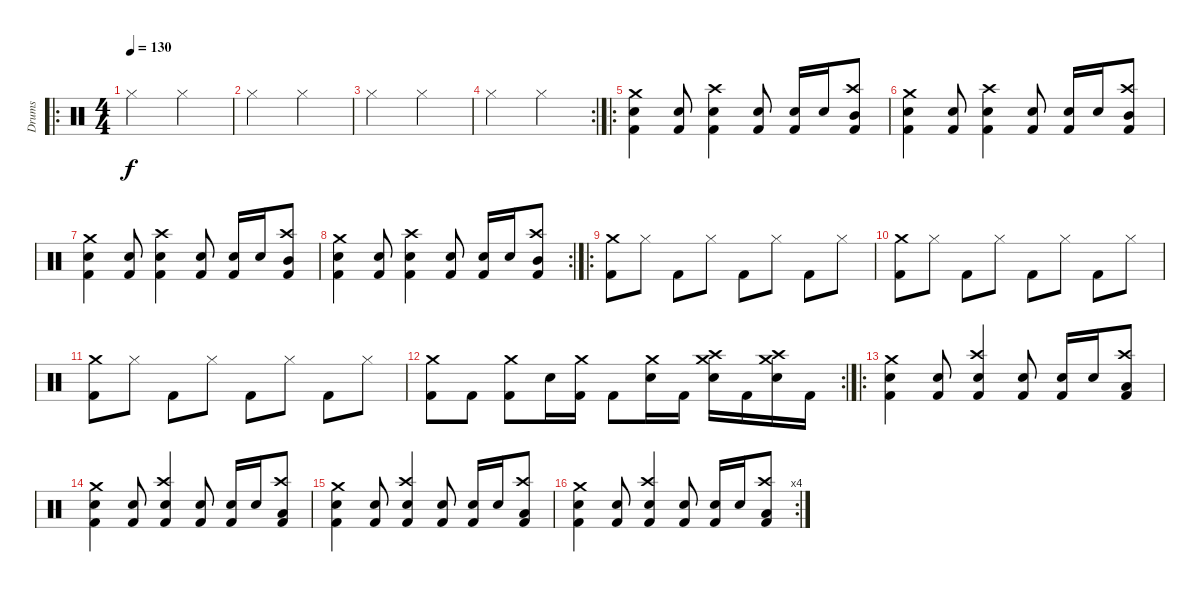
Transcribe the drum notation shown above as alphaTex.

\track ("Drums" "Drums") {instrument percussion}
\staff {score}
\articulation defaults
\ro
\ts (4 4)
\tempo 130
\clef neutral
\ks c "Hi-Hat (closed)".2{dy f} "Hi-Hat (closed)".2
|
"Hi-Hat (closed)".2 "Hi-Hat (closed)".2 |
"Hi-Hat (closed)".2 "Hi-Hat (closed)".2 |
\rc 2 "Hi-Hat (closed)".2 "Hi-Hat (closed)".2
|
\ro
("Crash medium (hit)" "Kick (hit) 2" "Snare (hit) 2").4 ("Kick (hit) 2" "Snare (hit) 2").8 ("Crash high (hit)" "Kick (hit) 2" "Snare (hit) 2").4 ("Kick (hit) 2" "Snare (hit) 2").8 ("Kick (hit) 2" "Snare (hit) 2").16 "Snare (hit) 2".16 ("Crash high (hit)" "Kick (hit) 2" "Mid Tom (hit)").8 |
("Crash medium (hit)" "Kick (hit) 2" "Snare (hit) 2").4 ("Kick (hit) 2" "Snare (hit) 2").8 ("Crash high (hit)" "Kick (hit) 2" "Snare (hit) 2").4 ("Kick (hit) 2" "Snare (hit) 2").8 ("Kick (hit) 2" "Snare (hit) 2").16 "Snare (hit) 2".16 ("Crash high (hit)" "Kick (hit) 2" "Mid Tom (hit)").8 |
("Crash medium (hit)" "Kick (hit) 2" "Snare (hit) 2").4 ("Kick (hit) 2" "Snare (hit) 2").8 ("Crash high (hit)" "Kick (hit) 2" "Snare (hit) 2").4 ("Kick (hit) 2" "Snare (hit) 2").8 ("Kick (hit) 2" "Snare (hit) 2").16 "Snare (hit) 2".16 ("Crash high (hit)" "Kick (hit) 2" "Mid Tom (hit)").8 |
\rc 2
("Crash medium (hit)" "Kick (hit) 2" "Snare (hit) 2").4 ("Kick (hit) 2" "Snare (hit) 2").8 ("Crash high (hit)" "Kick (hit) 2" "Snare (hit) 2").4 ("Kick (hit) 2" "Snare (hit) 2").8 ("Kick (hit) 2" "Snare (hit) 2").16 "Snare (hit) 2".16 ("Crash high (hit)" "Kick (hit) 2" "Mid Tom (hit)").8 |
\ro
("Crash medium (hit)" "Kick (hit) 2").8 "Hi-Hat (closed)".8 "Kick (hit) 2".8 "Hi-Hat (closed)".8 "Kick (hit) 2".8 "Hi-Hat (closed)".8 "Kick (hit) 2".8 "Hi-Hat (closed)".8 |
("Crash medium (hit)" "Kick (hit) 2").8 "Hi-Hat (closed)".8 "Kick (hit) 2".8 "Hi-Hat (closed)".8 "Kick (hit) 2".8 "Hi-Hat (closed)".8 "Kick (hit) 2".8 "Hi-Hat (closed)".8 |
("Crash medium (hit)" "Kick (hit) 2").8 "Hi-Hat (closed)".8 "Kick (hit) 2".8 "Hi-Hat (closed)".8 "Kick (hit) 2".8 "Hi-Hat (closed)".8 "Kick (hit) 2".8 "Hi-Hat (closed)".8 |
\rc 2
("Crash medium (hit)" "Kick (hit) 2").8 "Kick (hit) 2".8 ("Crash medium (hit)" "Kick (hit) 2").8 "Electric Snare (hit)".16 ("Crash medium (hit)" "Kick (hit) 2").16 "Kick (hit) 2".8 ("Crash medium (hit)" "Electric Snare (hit)").16 "Kick (hit) 2".16 ("Crash medium (hit)" "Crash high (hit)" "Electric Snare (hit)").16 "Kick (hit) 2".16 ("Crash medium (hit)" "Crash high (hit)" "Electric Snare (hit)").16 "Kick (hit) 2".16 |
\ro
("Crash medium (hit)" "Kick (hit) 2" "Electric Snare (hit)").4 ("Kick (hit) 2" "Electric Snare (hit)").8 ("Crash high (hit)" "Kick (hit) 2" "Electric Snare (hit)").4 ("Kick (hit) 2" "Electric Snare (hit)").8 ("Kick (hit) 2" "Electric Snare (hit)").16 "Electric Snare (hit)".16 ("Crash high (hit)" "Kick (hit) 2" "Low Tom (hit)").8 |
("Crash medium (hit)" "Kick (hit) 2" "Electric Snare (hit)").4 ("Kick (hit) 2" "Electric Snare (hit)").8 ("Crash high (hit)" "Kick (hit) 2" "Electric Snare (hit)").4 ("Kick (hit) 2" "Electric Snare (hit)").8 ("Kick (hit) 2" "Electric Snare (hit)").16 "Electric Snare (hit)".16 ("Crash high (hit)" "Kick (hit) 2" "Low Tom (hit)").8 |
("Crash medium (hit)" "Kick (hit) 2" "Electric Snare (hit)").4 ("Kick (hit) 2" "Electric Snare (hit)").8 ("Crash high (hit)" "Kick (hit) 2" "Electric Snare (hit)").4 ("Kick (hit) 2" "Electric Snare (hit)").8 ("Kick (hit) 2" "Electric Snare (hit)").16 "Electric Snare (hit)".16 ("Crash high (hit)" "Kick (hit) 2" "Low Tom (hit)").8 |
\rc 4
("Crash medium (hit)" "Kick (hit) 2" "Electric Snare (hit)").4 ("Kick (hit) 2" "Electric Snare (hit)").8 ("Crash high (hit)" "Kick (hit) 2" "Electric Snare (hit)").4 ("Kick (hit) 2" "Electric Snare (hit)").8 ("Kick (hit) 2" "Electric Snare (hit)").16 "Electric Snare (hit)".16 ("Crash high (hit)" "Kick (hit) 2" "Low Tom (hit)").8
